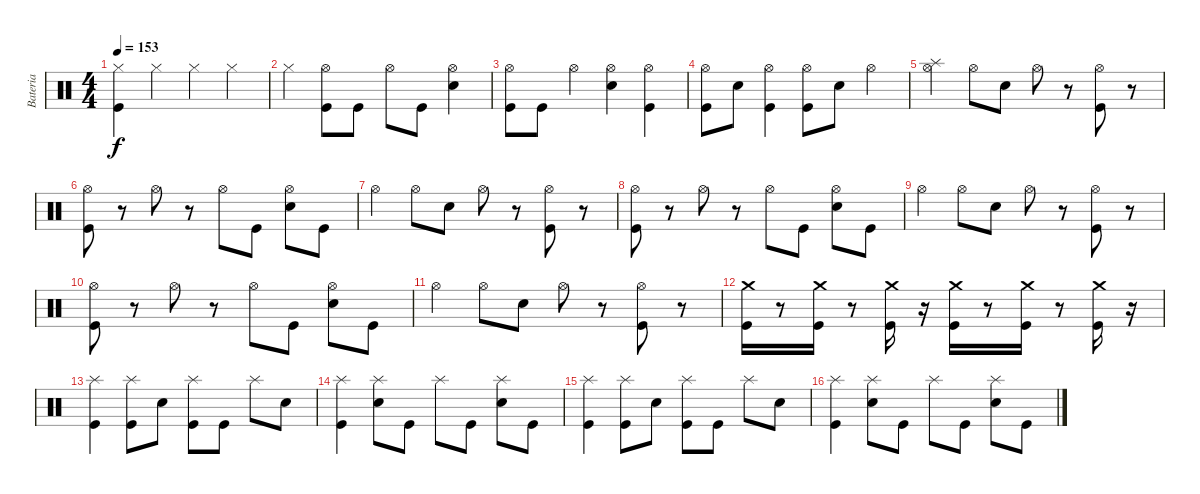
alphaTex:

\track ("Bateria" "Bateria") {instrument percussion}
\staff {score}
\articulation defaults
\ts (4 4)
\tempo 153
\clef neutral
\ks c
("Kick (hit)" "Hi-Hat (closed)").4{dy f} "Hi-Hat (closed)".4 "Hi-Hat (closed)".4 "Hi-Hat (closed)".4 |
"Hi-Hat (closed)".4 ("Kick (hit)" "Hi-Hat (open)").8 "Kick (hit)".8 "Hi-Hat (open)".8 "Kick (hit)".8 ("Snare (hit) 2" "Hi-Hat (open)").4 |
("Hi-Hat (open)" "Kick (hit)").8 "Kick (hit)".8 "Hi-Hat (open)".4 ("Hi-Hat (open)" "Snare (hit) 2").4 ("Hi-Hat (open)" "Kick (hit)").4 |
("Hi-Hat (open)" "Kick (hit)").8 "Snare (hit) 2".8 ("Hi-Hat (open)" "Kick (hit)").4 ("Hi-Hat (open)" "Kick (hit)").8 "Snare (hit) 2".8 "Hi-Hat (open)".4 |
("Splash (hit)" "Hi-Hat (open)").4 "Hi-Hat (open)".8 "Snare (hit) 2".8 "Hi-Hat (open)".8 r.8 ("Kick (hit)" "Hi-Hat (open)").8 r.8 |
("Kick (hit)" "Hi-Hat (open)").8 r.8 "Hi-Hat (open)".8 r.8 "Hi-Hat (open)".8 "Kick (hit)".8 ("Snare (hit) 2" "Hi-Hat (open)").8 "Kick (hit)".8 |
"Hi-Hat (open)".4 "Hi-Hat (open)".8 "Snare (hit) 2".8 "Hi-Hat (open)".8 r.8 ("Kick (hit)" "Hi-Hat (open)").8 r.8 |
("Kick (hit)" "Hi-Hat (open)").8 r.8 "Hi-Hat (open)".8 r.8 "Hi-Hat (open)".8 "Kick (hit)".8 ("Snare (hit) 2" "Hi-Hat (open)").8 "Kick (hit)".8 |
"Hi-Hat (open)".4 "Hi-Hat (open)".8 "Snare (hit) 2".8 "Hi-Hat (open)".8 r.8 ("Kick (hit)" "Hi-Hat (open)").8 r.8 |
("Kick (hit)" "Hi-Hat (open)").8 r.8 "Hi-Hat (open)".8 r.8 "Hi-Hat (open)".8 "Kick (hit)".8 ("Snare (hit) 2" "Hi-Hat (open)").8 "Kick (hit)".8 |
"Hi-Hat (open)".4 "Hi-Hat (open)".8 "Snare (hit) 2".8 "Hi-Hat (open)".8 r.8 ("Kick (hit)" "Hi-Hat (open)").8 r.8 |
("Crash medium (hit)" "Kick (hit)").16 r.8 ("Crash medium (hit)" "Kick (hit)").16 r.8 ("Crash medium (hit)" "Kick (hit)").16 r.16 ("Crash medium (hit)" "Kick (hit)").16 r.8 ("Crash medium (hit)" "Kick (hit)").16 r.8 ("Crash medium (hit)" "Kick (hit)").16 r.16 |
("Kick (hit)" "Splash (hit)").4 ("Kick (hit)" "Splash (hit)").8 "Snare (hit) 2".8 ("Splash (hit)" "Kick (hit)").8 "Kick (hit)".8 "Splash (hit)".8 "Snare (hit) 2".8 |
("Kick (hit)" "Splash (hit)").4 ("Splash (hit)" "Snare (hit) 2").8 "Kick (hit)".8 "Splash (hit)".8 "Kick (hit)".8 ("Snare (hit) 2" "Splash (hit)").8 "Kick (hit)".8 |
("Kick (hit)" "Splash (hit)").4 ("Kick (hit)" "Splash (hit)").8 "Snare (hit) 2".8 ("Splash (hit)" "Kick (hit)").8 "Kick (hit)".8 "Splash (hit)".8 "Snare (hit) 2".8 |
("Kick (hit)" "Splash (hit)").4 ("Splash (hit)" "Snare (hit) 2").8 "Kick (hit)".8 "Splash (hit)".8 "Kick (hit)".8 ("Snare (hit) 2" "Splash (hit)").8 "Kick (hit)".8
